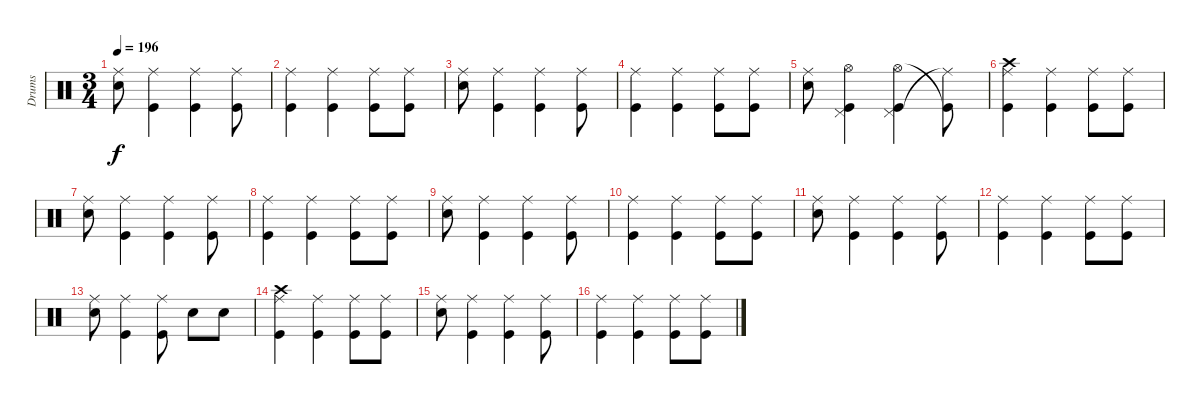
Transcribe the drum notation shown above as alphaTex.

\track ("Drums" "Drums") {instrument percussion}
\staff {score}
\articulation defaults
\ts (3 4)
\tempo 196
\clef neutral
\ks c
("Ride (middle)" "Electric Snare (hit)").8{dy f} ("Ride (middle)" "Kick (hit)").4 ("Ride (middle)" "Kick (hit)").4 ("Ride (middle)" "Kick (hit)").8 |
("Ride (middle)" "Kick (hit)").4 ("Ride (middle)" "Kick (hit)").4 ("Ride (middle)" "Kick (hit)").8 ("Ride (middle)" "Kick (hit)").8 |
("Ride (middle)" "Electric Snare (hit)").8 ("Ride (middle)" "Kick (hit)").4 ("Ride (middle)" "Kick (hit)").4 ("Ride (middle)" "Kick (hit)").8 |
("Ride (middle)" "Kick (hit)").4 ("Ride (middle)" "Kick (hit)").4 ("Ride (middle)" "Kick (hit)").8 ("Ride (middle)" "Kick (hit)").8 |
("Ride (middle)" "Electric Snare (hit)").8 ("Pedal Hi-Hat (hit)" "Hi-Hat (open)" "Kick (hit)").4 ("Pedal Hi-Hat (hit)" "Hi-Hat (open)" "Kick (hit)").4 ("Ride (middle)"{t} "Kick (hit)"{t}).8 |
("Crash high (hit)" "Ride (middle)" "Kick (hit)").4 ("Ride (middle)" "Kick (hit)").4 ("Ride (middle)" "Kick (hit)").8 ("Ride (middle)" "Kick (hit)").8 |
("Ride (middle)" "Electric Snare (hit)").8 ("Ride (middle)" "Kick (hit)").4 ("Ride (middle)" "Kick (hit)").4 ("Ride (middle)" "Kick (hit)").8 |
("Ride (middle)" "Kick (hit)").4 ("Ride (middle)" "Kick (hit)").4 ("Ride (middle)" "Kick (hit)").8 ("Ride (middle)" "Kick (hit)").8 |
("Ride (middle)" "Electric Snare (hit)").8 ("Ride (middle)" "Kick (hit)").4 ("Ride (middle)" "Kick (hit)").4 ("Ride (middle)" "Kick (hit)").8 |
("Ride (middle)" "Kick (hit)").4 ("Ride (middle)" "Kick (hit)").4 ("Ride (middle)" "Kick (hit)").8 ("Ride (middle)" "Kick (hit)").8 |
("Ride (middle)" "Electric Snare (hit)").8 ("Ride (middle)" "Kick (hit)").4 ("Ride (middle)" "Kick (hit)").4 ("Ride (middle)" "Kick (hit)").8 |
("Ride (middle)" "Kick (hit)").4 ("Ride (middle)" "Kick (hit)").4 ("Ride (middle)" "Kick (hit)").8 ("Ride (middle)" "Kick (hit)").8 |
("Ride (middle)" "Electric Snare (hit)").8 ("Ride (middle)" "Kick (hit)").4 ("Ride (middle)" "Kick (hit)").8 "Electric Snare (hit)".8 "Electric Snare (hit)".8 |
("Crash high (hit)" "Ride (middle)" "Kick (hit)").4 ("Ride (middle)" "Kick (hit)").4 ("Ride (middle)" "Kick (hit)").8 ("Ride (middle)" "Kick (hit)").8 |
("Ride (middle)" "Electric Snare (hit)").8 ("Ride (middle)" "Kick (hit)").4 ("Ride (middle)" "Kick (hit)").4 ("Ride (middle)" "Kick (hit)").8 |
("Ride (middle)" "Kick (hit)").4 ("Ride (middle)" "Kick (hit)").4 ("Ride (middle)" "Kick (hit)").8 ("Ride (middle)" "Kick (hit)").8
